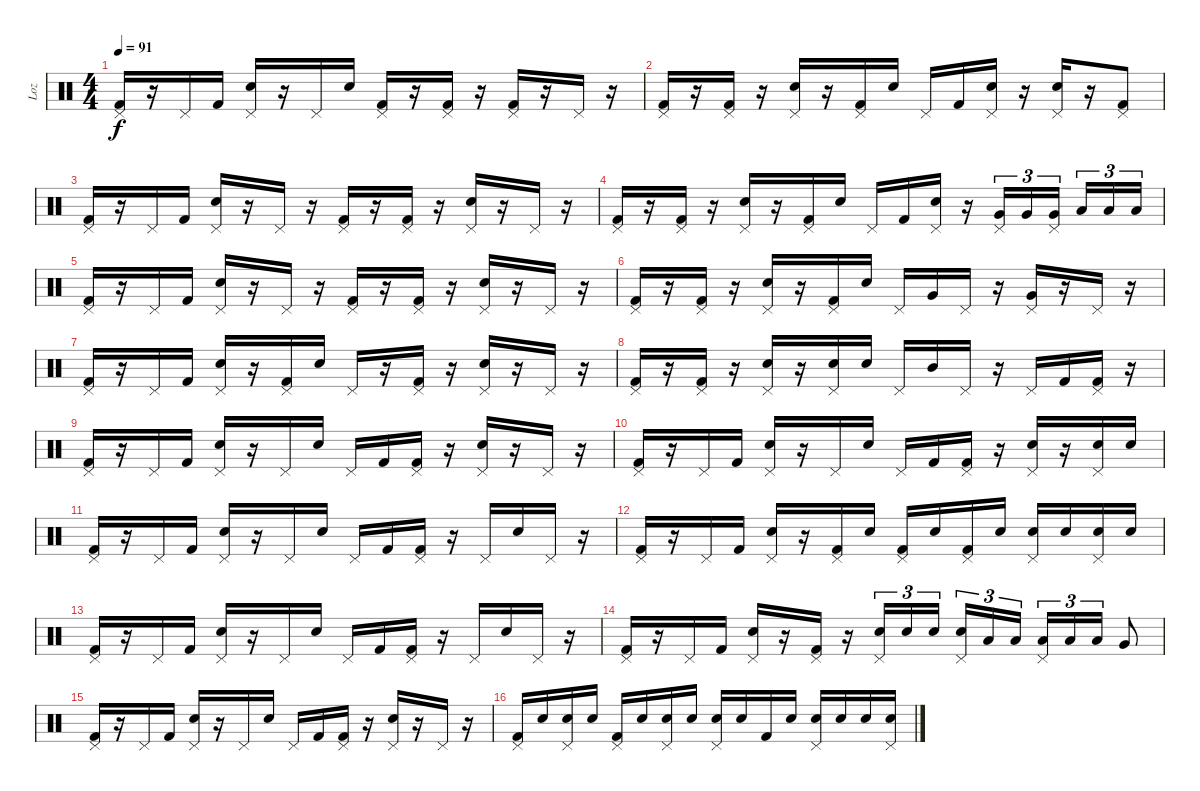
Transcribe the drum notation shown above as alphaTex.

\track ("Loz" "Loz") {instrument percussion}
\staff {score}
\articulation defaults
\ts (4 4)
\tempo 91
\clef neutral
\ks c
("Pedal Hi-Hat (hit)" "Kick (hit) 2").16{dy f} r.16 "Pedal Hi-Hat (hit)".16 "Kick (hit) 2".16 ("Pedal Hi-Hat (hit)" "Electric Snare (hit)").16 r.16 "Pedal Hi-Hat (hit)".16 "Electric Snare (hit)".16 ("Pedal Hi-Hat (hit)" "Kick (hit) 2").16 r.16 ("Pedal Hi-Hat (hit)" "Kick (hit) 2").16 r.16 ("Pedal Hi-Hat (hit)" "Kick (hit) 2").16 r.16 "Pedal Hi-Hat (hit)".16 r.16 |
("Pedal Hi-Hat (hit)" "Kick (hit) 2").16 r.16 ("Pedal Hi-Hat (hit)" "Kick (hit) 2").16 r.16 ("Pedal Hi-Hat (hit)" "Electric Snare (hit)").16 r.16 ("Pedal Hi-Hat (hit)" "Kick (hit) 2").16 "Electric Snare (hit)".16 "Pedal Hi-Hat (hit)".16 "Kick (hit) 2".16 ("Pedal Hi-Hat (hit)" "Electric Snare (hit)").16 r.16 ("Pedal Hi-Hat (hit)" "Electric Snare (hit)").16 r.16 ("Pedal Hi-Hat (hit)" "Kick (hit) 2").8 |
("Pedal Hi-Hat (hit)" "Kick (hit) 2").16 r.16 "Pedal Hi-Hat (hit)".16 "Kick (hit) 2".16 ("Pedal Hi-Hat (hit)" "Electric Snare (hit)").16 r.16 "Pedal Hi-Hat (hit)".16 r.16 ("Pedal Hi-Hat (hit)" "Kick (hit) 2").16 r.16 ("Pedal Hi-Hat (hit)" "Kick (hit) 2").16 r.16 ("Pedal Hi-Hat (hit)" "Electric Snare (hit)").16 r.16 "Pedal Hi-Hat (hit)".16 r.16 |
("Pedal Hi-Hat (hit)" "Kick (hit) 2").16 r.16 ("Pedal Hi-Hat (hit)" "Kick (hit) 2").16 r.16 ("Pedal Hi-Hat (hit)" "Electric Snare (hit)").16 r.16 ("Pedal Hi-Hat (hit)" "Kick (hit) 2").16 "Electric Snare (hit)".16 "Pedal Hi-Hat (hit)".16 "Kick (hit) 2".16 ("Pedal Hi-Hat (hit)" "Electric Snare (hit)").16 r.16 ("Pedal Hi-Hat (hit)" "Very Low Tom (hit)").16{tu (3 2)} "Very Low Tom (hit)".16{tu (3 2)} ("Pedal Hi-Hat (hit)" "Very Low Tom (hit)").16{tu (3 2)} "Low Floor Tom (hit)".16{tu (3 2)} "Low Floor Tom (hit)".16{tu (3 2)} "Low Floor Tom (hit)".16{tu (3 2)} |
("Pedal Hi-Hat (hit)" "Kick (hit) 2").16 r.16 "Pedal Hi-Hat (hit)".16 "Kick (hit) 2".16 ("Pedal Hi-Hat (hit)" "Electric Snare (hit)").16 r.16 "Pedal Hi-Hat (hit)".16 r.16 ("Pedal Hi-Hat (hit)" "Kick (hit) 2").16 r.16 ("Pedal Hi-Hat (hit)" "Kick (hit) 2").16 r.16 ("Pedal Hi-Hat (hit)" "Electric Snare (hit)").16 r.16 "Pedal Hi-Hat (hit)".16 r.16 |
("Pedal Hi-Hat (hit)" "Kick (hit) 2").16 r.16 ("Pedal Hi-Hat (hit)" "Kick (hit) 2").16 r.16 ("Pedal Hi-Hat (hit)" "Electric Snare (hit)").16 r.16 ("Pedal Hi-Hat (hit)" "Kick (hit) 2").16 "Electric Snare (hit)".16 "Pedal Hi-Hat (hit)".16 "Very Low Tom (hit)".16 "Pedal Hi-Hat (hit)".16 r.16 ("Pedal Hi-Hat (hit)" "Very Low Tom (hit)").16 r.16 "Pedal Hi-Hat (hit)".16 r.16 |
("Pedal Hi-Hat (hit)" "Kick (hit) 2").16 r.16 "Pedal Hi-Hat (hit)".16 "Kick (hit) 2".16 ("Pedal Hi-Hat (hit)" "Electric Snare (hit)").16 r.16 ("Pedal Hi-Hat (hit)" "Kick (hit) 2").16 "Electric Snare (hit)".16 "Pedal Hi-Hat (hit)".16 r.16 ("Pedal Hi-Hat (hit)" "Kick (hit) 2").16 r.16 ("Pedal Hi-Hat (hit)" "Electric Snare (hit)").16 r.16 "Pedal Hi-Hat (hit)".16 r.16 |
("Pedal Hi-Hat (hit)" "Kick (hit) 2").16 r.16 ("Pedal Hi-Hat (hit)" "Kick (hit) 2").16 r.16 ("Pedal Hi-Hat (hit)" "Electric Snare (hit)").16 r.16 ("Pedal Hi-Hat (hit)" "Electric Snare (hit)").16 "Electric Snare (hit)".16 "Pedal Hi-Hat (hit)".16 "Mid Tom (hit)".16 "Pedal Hi-Hat (hit)".16 r.16 "Pedal Hi-Hat (hit)".16 "Kick (hit) 2".16 ("Pedal Hi-Hat (hit)" "Kick (hit) 2").16 r.16 |
("Pedal Hi-Hat (hit)" "Kick (hit) 2").16 r.16 "Pedal Hi-Hat (hit)".16 "Kick (hit) 2".16 ("Pedal Hi-Hat (hit)" "Electric Snare (hit)").16 r.16 "Pedal Hi-Hat (hit)".16 "Electric Snare (hit)".16 "Pedal Hi-Hat (hit)".16 "Kick (hit) 2".16 ("Pedal Hi-Hat (hit)" "Kick (hit) 2").16 r.16 ("Pedal Hi-Hat (hit)" "Electric Snare (hit)").16 r.16 "Pedal Hi-Hat (hit)".16 r.16 |
("Pedal Hi-Hat (hit)" "Kick (hit) 2").16 r.16 "Pedal Hi-Hat (hit)".16 "Kick (hit) 2".16 ("Pedal Hi-Hat (hit)" "Electric Snare (hit)").16 r.16 "Pedal Hi-Hat (hit)".16 "Electric Snare (hit)".16 "Pedal Hi-Hat (hit)".16 "Kick (hit) 2".16 ("Pedal Hi-Hat (hit)" "Kick (hit) 2").16 r.16 ("Pedal Hi-Hat (hit)" "Electric Snare (hit)").16 r.16 ("Pedal Hi-Hat (hit)" "Electric Snare (hit)").16 "Electric Snare (hit)".16 |
("Pedal Hi-Hat (hit)" "Kick (hit) 2").16 r.16 "Pedal Hi-Hat (hit)".16 "Kick (hit) 2".16 ("Pedal Hi-Hat (hit)" "Electric Snare (hit)").16 r.16 "Pedal Hi-Hat (hit)".16 "Electric Snare (hit)".16 "Pedal Hi-Hat (hit)".16 "Kick (hit) 2".16 ("Pedal Hi-Hat (hit)" "Kick (hit) 2").16 r.16 "Pedal Hi-Hat (hit)".16 "Electric Snare (hit)".16 "Pedal Hi-Hat (hit)".16 r.16 |
("Pedal Hi-Hat (hit)" "Kick (hit) 2").16 r.16 "Pedal Hi-Hat (hit)".16 "Kick (hit) 2".16 ("Pedal Hi-Hat (hit)" "Electric Snare (hit)").16 r.16 ("Pedal Hi-Hat (hit)" "Kick (hit) 2").16 "Electric Snare (hit)".16 ("Pedal Hi-Hat (hit)" "Kick (hit) 2").16 "Electric Snare (hit)".16 ("Pedal Hi-Hat (hit)" "Kick (hit) 2").16 "Electric Snare (hit)".16 ("Pedal Hi-Hat (hit)" "Electric Snare (hit)").16 "Electric Snare (hit)".16 ("Pedal Hi-Hat (hit)" "Electric Snare (hit)").16 "Electric Snare (hit)".16 |
("Pedal Hi-Hat (hit)" "Kick (hit) 2").16 r.16 "Pedal Hi-Hat (hit)".16 "Kick (hit) 2".16 ("Pedal Hi-Hat (hit)" "Electric Snare (hit)").16 r.16 "Pedal Hi-Hat (hit)".16 "Electric Snare (hit)".16 "Pedal Hi-Hat (hit)".16 "Kick (hit) 2".16 ("Pedal Hi-Hat (hit)" "Kick (hit) 2").16 r.16 "Pedal Hi-Hat (hit)".16 "Electric Snare (hit)".16 "Pedal Hi-Hat (hit)".16 r.16 |
("Pedal Hi-Hat (hit)" "Kick (hit) 2").16 r.16 "Pedal Hi-Hat (hit)".16 "Kick (hit) 2".16 ("Pedal Hi-Hat (hit)" "Electric Snare (hit)").16 r.16 ("Pedal Hi-Hat (hit)" "Kick (hit) 2").16 r.16 ("Pedal Hi-Hat (hit)" "Electric Snare (hit)").16{tu (3 2)} "Electric Snare (hit)".16{tu (3 2)} "Electric Snare (hit)".16{tu (3 2)} ("Pedal Hi-Hat (hit)" "Electric Snare (hit)").16{tu (3 2)} "Low Tom (hit)".16{tu (3 2)} "Low Tom (hit)".16{tu (3 2)} ("Pedal Hi-Hat (hit)" "Low Tom (hit)").16{tu (3 2)} "Low Tom (hit)".16{tu (3 2)} "Low Tom (hit)".16{tu (3 2)} "Very Low Tom (hit)".8 |
("Pedal Hi-Hat (hit)" "Kick (hit) 2").16 r.16 "Pedal Hi-Hat (hit)".16 "Kick (hit) 2".16 ("Pedal Hi-Hat (hit)" "Electric Snare (hit)").16 r.16 "Pedal Hi-Hat (hit)".16 "Electric Snare (hit)".16 "Pedal Hi-Hat (hit)".16 "Kick (hit) 2".16 ("Pedal Hi-Hat (hit)" "Kick (hit) 2").16 r.16 ("Pedal Hi-Hat (hit)" "Electric Snare (hit)").16 r.16 "Pedal Hi-Hat (hit)".16 r.16 |
("Pedal Hi-Hat (hit)" "Kick (hit) 2").16 "Electric Snare (hit)".16 ("Pedal Hi-Hat (hit)" "Electric Snare (hit)").16 "Electric Snare (hit)".16 ("Pedal Hi-Hat (hit)" "Kick (hit) 2").16 "Electric Snare (hit)".16 ("Pedal Hi-Hat (hit)" "Electric Snare (hit)").16 "Electric Snare (hit)".16 ("Pedal Hi-Hat (hit)" "Electric Snare (hit)").16 "Electric Snare (hit)".16 "Kick (hit) 2".16 "Electric Snare (hit)".16 ("Pedal Hi-Hat (hit)" "Electric Snare (hit)").16 "Electric Snare (hit)".16 "Electric Snare (hit)".16 ("Pedal Hi-Hat (hit)" "Electric Snare (hit)").16
